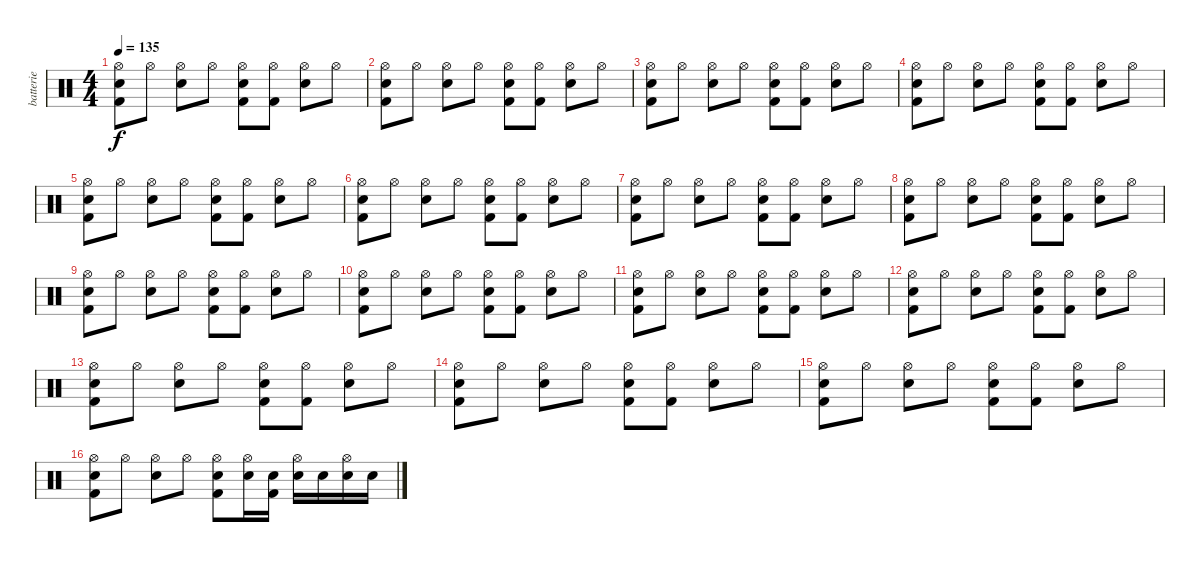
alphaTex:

\track ("batterie" "batterie") {instrument percussion}
\staff {score}
\articulation defaults
\ts (4 4)
\tempo 135
\clef neutral
\ks c
("Kick (hit) 2" "Electric Snare (hit)" "Hi-Hat (open)").8{dy f} "Hi-Hat (open)".8 ("Electric Snare (hit)" "Hi-Hat (open)").8 "Hi-Hat (open)".8 ("Kick (hit) 2" "Electric Snare (hit)" "Hi-Hat (open)").8 ("Kick (hit) 2" "Hi-Hat (open)").8 ("Electric Snare (hit)" "Hi-Hat (open)").8 "Hi-Hat (open)".8 |
("Kick (hit) 2" "Electric Snare (hit)" "Hi-Hat (open)").8 "Hi-Hat (open)".8 ("Electric Snare (hit)" "Hi-Hat (open)").8 "Hi-Hat (open)".8 ("Kick (hit) 2" "Electric Snare (hit)" "Hi-Hat (open)").8 ("Kick (hit) 2" "Hi-Hat (open)").8 ("Electric Snare (hit)" "Hi-Hat (open)").8 "Hi-Hat (open)".8 |
("Kick (hit) 2" "Electric Snare (hit)" "Hi-Hat (open)").8 "Hi-Hat (open)".8 ("Electric Snare (hit)" "Hi-Hat (open)").8 "Hi-Hat (open)".8 ("Kick (hit) 2" "Electric Snare (hit)" "Hi-Hat (open)").8 ("Kick (hit) 2" "Hi-Hat (open)").8 ("Electric Snare (hit)" "Hi-Hat (open)").8 "Hi-Hat (open)".8 |
("Kick (hit) 2" "Electric Snare (hit)" "Hi-Hat (open)").8 "Hi-Hat (open)".8 ("Electric Snare (hit)" "Hi-Hat (open)").8 "Hi-Hat (open)".8 ("Kick (hit) 2" "Electric Snare (hit)" "Hi-Hat (open)").8 ("Kick (hit) 2" "Hi-Hat (open)").8 ("Electric Snare (hit)" "Hi-Hat (open)").8 "Hi-Hat (open)".8 |
("Kick (hit) 2" "Electric Snare (hit)" "Hi-Hat (open)").8 "Hi-Hat (open)".8 ("Electric Snare (hit)" "Hi-Hat (open)").8 "Hi-Hat (open)".8 ("Kick (hit) 2" "Electric Snare (hit)" "Hi-Hat (open)").8 ("Kick (hit) 2" "Hi-Hat (open)").8 ("Electric Snare (hit)" "Hi-Hat (open)").8 "Hi-Hat (open)".8 |
("Kick (hit) 2" "Electric Snare (hit)" "Hi-Hat (open)").8 "Hi-Hat (open)".8 ("Electric Snare (hit)" "Hi-Hat (open)").8 "Hi-Hat (open)".8 ("Kick (hit) 2" "Electric Snare (hit)" "Hi-Hat (open)").8 ("Kick (hit) 2" "Hi-Hat (open)").8 ("Electric Snare (hit)" "Hi-Hat (open)").8 "Hi-Hat (open)".8 |
("Kick (hit) 2" "Electric Snare (hit)" "Hi-Hat (open)").8 "Hi-Hat (open)".8 ("Electric Snare (hit)" "Hi-Hat (open)").8 "Hi-Hat (open)".8 ("Kick (hit) 2" "Electric Snare (hit)" "Hi-Hat (open)").8 ("Kick (hit) 2" "Hi-Hat (open)").8 ("Electric Snare (hit)" "Hi-Hat (open)").8 "Hi-Hat (open)".8 |
("Kick (hit) 2" "Electric Snare (hit)" "Hi-Hat (open)").8 "Hi-Hat (open)".8 ("Electric Snare (hit)" "Hi-Hat (open)").8 "Hi-Hat (open)".8 ("Kick (hit) 2" "Electric Snare (hit)" "Hi-Hat (open)").8 ("Kick (hit) 2" "Hi-Hat (open)").8 ("Electric Snare (hit)" "Hi-Hat (open)").8 "Hi-Hat (open)".8 |
("Kick (hit) 2" "Electric Snare (hit)" "Hi-Hat (open)").8 "Hi-Hat (open)".8 ("Electric Snare (hit)" "Hi-Hat (open)").8 "Hi-Hat (open)".8 ("Kick (hit) 2" "Electric Snare (hit)" "Hi-Hat (open)").8 ("Kick (hit) 2" "Hi-Hat (open)").8 ("Electric Snare (hit)" "Hi-Hat (open)").8 "Hi-Hat (open)".8 |
("Kick (hit) 2" "Electric Snare (hit)" "Hi-Hat (open)").8 "Hi-Hat (open)".8 ("Electric Snare (hit)" "Hi-Hat (open)").8 "Hi-Hat (open)".8 ("Kick (hit) 2" "Electric Snare (hit)" "Hi-Hat (open)").8 ("Kick (hit) 2" "Hi-Hat (open)").8 ("Electric Snare (hit)" "Hi-Hat (open)").8 "Hi-Hat (open)".8 |
("Kick (hit) 2" "Electric Snare (hit)" "Hi-Hat (open)").8 "Hi-Hat (open)".8 ("Electric Snare (hit)" "Hi-Hat (open)").8 "Hi-Hat (open)".8 ("Kick (hit) 2" "Electric Snare (hit)" "Hi-Hat (open)").8 ("Kick (hit) 2" "Hi-Hat (open)").8 ("Electric Snare (hit)" "Hi-Hat (open)").8 "Hi-Hat (open)".8 |
("Kick (hit) 2" "Electric Snare (hit)" "Hi-Hat (open)").8 "Hi-Hat (open)".8 ("Electric Snare (hit)" "Hi-Hat (open)").8 "Hi-Hat (open)".8 ("Kick (hit) 2" "Electric Snare (hit)" "Hi-Hat (open)").8 ("Kick (hit) 2" "Hi-Hat (open)").8 ("Electric Snare (hit)" "Hi-Hat (open)").8 "Hi-Hat (open)".8 |
("Kick (hit) 2" "Electric Snare (hit)" "Hi-Hat (open)").8 "Hi-Hat (open)".8 ("Electric Snare (hit)" "Hi-Hat (open)").8 "Hi-Hat (open)".8 ("Kick (hit) 2" "Electric Snare (hit)" "Hi-Hat (open)").8 ("Kick (hit) 2" "Hi-Hat (open)").8 ("Electric Snare (hit)" "Hi-Hat (open)").8 "Hi-Hat (open)".8 |
("Kick (hit) 2" "Electric Snare (hit)" "Hi-Hat (open)").8 "Hi-Hat (open)".8 ("Electric Snare (hit)" "Hi-Hat (open)").8 "Hi-Hat (open)".8 ("Kick (hit) 2" "Electric Snare (hit)" "Hi-Hat (open)").8 ("Kick (hit) 2" "Hi-Hat (open)").8 ("Electric Snare (hit)" "Hi-Hat (open)").8 "Hi-Hat (open)".8 |
("Kick (hit) 2" "Electric Snare (hit)" "Hi-Hat (open)").8 "Hi-Hat (open)".8 ("Electric Snare (hit)" "Hi-Hat (open)").8 "Hi-Hat (open)".8 ("Kick (hit) 2" "Electric Snare (hit)" "Hi-Hat (open)").8 ("Kick (hit) 2" "Hi-Hat (open)").8 ("Electric Snare (hit)" "Hi-Hat (open)").8 "Hi-Hat (open)".8 |
("Kick (hit) 2" "Electric Snare (hit)" "Hi-Hat (open)").8 "Hi-Hat (open)".8 ("Electric Snare (hit)" "Hi-Hat (open)").8 "Hi-Hat (open)".8 ("Kick (hit) 2" "Electric Snare (hit)" "Hi-Hat (open)").8 ("Electric Snare (hit)" "Hi-Hat (open)").16 ("Kick (hit) 2" "Electric Snare (hit)").16 ("Electric Snare (hit)" "Hi-Hat (open)").16 "Electric Snare (hit)".16 ("Electric Snare (hit)" "Hi-Hat (open)").16 "Electric Snare (hit)".16
